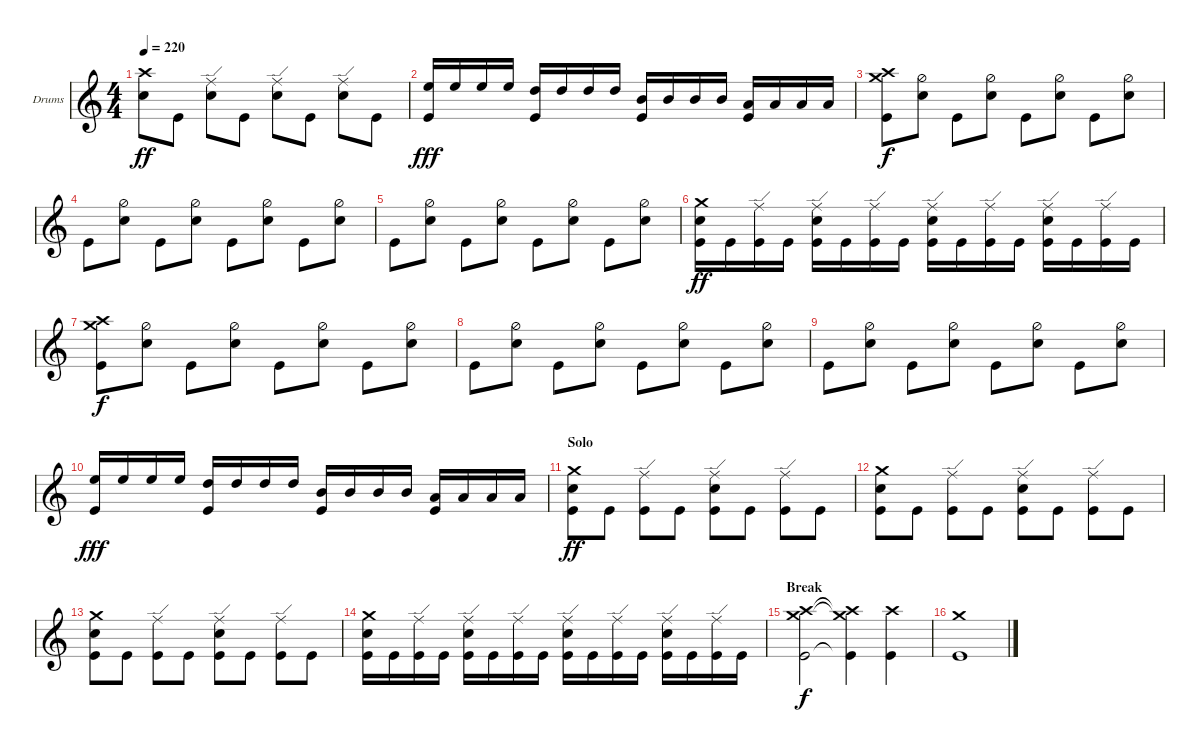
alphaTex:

\defaultSystemsLayout 4
\bracketExtendMode groupsimilarinstruments
\firstSystemTrackNameOrientation horizontal
\otherSystemsTrackNameOrientation horizontal
\track ("Drumkit" "Drums") {instrument percussion}
\staff {score}
\articulation defaults
\ts (4 4)
\tempo 220
\clef g2
\ks c
("Crash high (hit)" "Snare (hit) 2").8{dy ff} "Kick (hit)".8 ("Ride (edge)" "Snare (hit) 2").8 "Kick (hit)".8 ("Ride (edge)" "Snare (hit) 2").8 "Kick (hit)".8 ("Ride (edge)" "Snare (hit) 2").8 "Kick (hit)".8 |
("High Floor Tom (hit)" "Kick (hit)").16{dy fff} "High Floor Tom (hit)".16 "High Floor Tom (hit)".16 "High Floor Tom (hit)".16 ("High Tom (hit)" "Kick (hit)").16 "High Tom (hit)".16 "High Tom (hit)".16 "High Tom (hit)".16 ("Mid Tom (hit)" "Kick (hit)").16 "Mid Tom (hit)".16 "Mid Tom (hit)".16 "Mid Tom (hit)".16 ("Low Tom (hit)" "Kick (hit)").16 "Low Tom (hit)".16 "Low Tom (hit)".16 "Low Tom (hit)".16 |
("Kick (hit)" "Crash high (hit)" "Crash medium (hit)").8{dy f} ("Snare (hit) 2" "Hi-Hat (half)").8 "Kick (hit)".8 ("Snare (hit) 2" "Hi-Hat (half)").8 "Kick (hit)".8 ("Snare (hit) 2" "Hi-Hat (half)").8 "Kick (hit)".8 ("Snare (hit) 2" "Hi-Hat (half)").8 |
"Kick (hit)".8 ("Snare (hit) 2" "Hi-Hat (half)").8 "Kick (hit)".8 ("Snare (hit) 2" "Hi-Hat (half)").8 "Kick (hit)".8 ("Snare (hit) 2" "Hi-Hat (half)").8 "Kick (hit)".8 ("Snare (hit) 2" "Hi-Hat (half)").8 |
"Kick (hit)".8 ("Snare (hit) 2" "Hi-Hat (half)").8 "Kick (hit)".8 ("Snare (hit) 2" "Hi-Hat (half)").8 "Kick (hit)".8 ("Snare (hit) 2" "Hi-Hat (half)").8 "Kick (hit)".8 ("Snare (hit) 2" "Hi-Hat (half)").8 |
("Crash medium (hit)" "Snare (hit) 2" "Kick (hit)").16{dy ff} "Kick (hit)".16 ("Ride (edge)" "Kick (hit)").16 "Kick (hit)".16 ("Ride (edge)" "Snare (hit) 2" "Kick (hit)").16 "Kick (hit)".16 ("Ride (edge)" "Kick (hit)").16 "Kick (hit)".16 ("Ride (edge)" "Snare (hit) 2" "Kick (hit)").16 "Kick (hit)".16 ("Ride (edge)" "Kick (hit)").16 "Kick (hit)".16 ("Ride (edge)" "Snare (hit) 2" "Kick (hit)").16 "Kick (hit)".16 ("Ride (edge)" "Kick (hit)").16 "Kick (hit)".16 |
("Kick (hit)" "Crash high (hit)" "Crash medium (hit)").8{dy f} ("Snare (hit) 2" "Hi-Hat (half)").8 "Kick (hit)".8 ("Snare (hit) 2" "Hi-Hat (half)").8 "Kick (hit)".8 ("Snare (hit) 2" "Hi-Hat (half)").8 "Kick (hit)".8 ("Snare (hit) 2" "Hi-Hat (half)").8 |
"Kick (hit)".8 ("Snare (hit) 2" "Hi-Hat (half)").8 "Kick (hit)".8 ("Snare (hit) 2" "Hi-Hat (half)").8 "Kick (hit)".8 ("Snare (hit) 2" "Hi-Hat (half)").8 "Kick (hit)".8 ("Snare (hit) 2" "Hi-Hat (half)").8 |
"Kick (hit)".8 ("Snare (hit) 2" "Hi-Hat (half)").8 "Kick (hit)".8 ("Snare (hit) 2" "Hi-Hat (half)").8 "Kick (hit)".8 ("Snare (hit) 2" "Hi-Hat (half)").8 "Kick (hit)".8 ("Snare (hit) 2" "Hi-Hat (half)").8 |
("High Floor Tom (hit)" "Kick (hit)").16{dy fff} "High Floor Tom (hit)".16 "High Floor Tom (hit)".16 "High Floor Tom (hit)".16 ("High Tom (hit)" "Kick (hit)").16 "High Tom (hit)".16 "High Tom (hit)".16 "High Tom (hit)".16 ("Mid Tom (hit)" "Kick (hit)").16 "Mid Tom (hit)".16 "Mid Tom (hit)".16 "Mid Tom (hit)".16 ("Low Tom (hit)" "Kick (hit)").16 "Low Tom (hit)".16 "Low Tom (hit)".16 "Low Tom (hit)".16 |
\section ("" "Solo")
("Crash medium (hit)" "Snare (hit) 2" "Kick (hit)").8{dy ff} "Kick (hit)".8 ("Ride (edge)" "Kick (hit)").8 "Kick (hit)".8 ("Ride (edge)" "Snare (hit) 2" "Kick (hit)").8 "Kick (hit)".8 ("Ride (edge)" "Kick (hit)").8 "Kick (hit)".8 |
("Crash medium (hit)" "Snare (hit) 2" "Kick (hit)").8 "Kick (hit)".8 ("Ride (edge)" "Kick (hit)").8 "Kick (hit)".8 ("Ride (edge)" "Snare (hit) 2" "Kick (hit)").8 "Kick (hit)".8 ("Ride (edge)" "Kick (hit)").8 "Kick (hit)".8 |
("Crash medium (hit)" "Snare (hit) 2" "Kick (hit)").8 "Kick (hit)".8 ("Ride (edge)" "Kick (hit)").8 "Kick (hit)".8 ("Ride (edge)" "Snare (hit) 2" "Kick (hit)").8 "Kick (hit)".8 ("Ride (edge)" "Kick (hit)").8 "Kick (hit)".8 |
("Crash medium (hit)" "Snare (hit) 2" "Kick (hit)").16 "Kick (hit)".16 ("Ride (edge)" "Kick (hit)").16 "Kick (hit)".16 ("Ride (edge)" "Snare (hit) 2" "Kick (hit)").16 "Kick (hit)".16 ("Ride (edge)" "Kick (hit)").16 "Kick (hit)".16 ("Ride (edge)" "Snare (hit) 2" "Kick (hit)").16 "Kick (hit)".16 ("Ride (edge)" "Kick (hit)").16 "Kick (hit)".16 ("Ride (edge)" "Snare (hit) 2" "Kick (hit)").16 "Kick (hit)".16 ("Ride (edge)" "Kick (hit)").16 "Kick (hit)".16 |
\section ("" "Break")
("Kick (hit)" "Crash high (hit)" "Crash medium (hit)").2{dy f} ("Kick (hit)"{t} "Crash high (hit)"{t} "Crash medium (hit)"{t}).4 ("Kick (hit)" "Crash high (hit)").4 |
("Kick (hit)" "Crash medium (hit)").1
